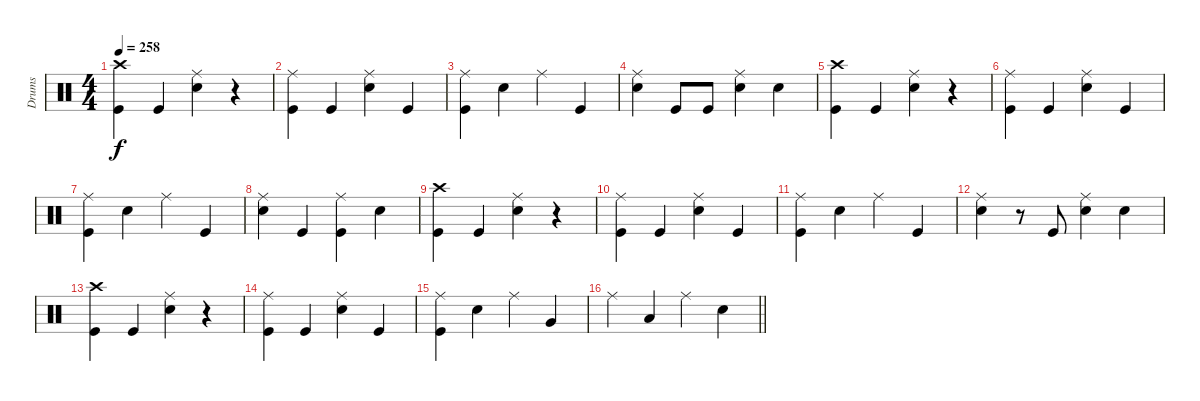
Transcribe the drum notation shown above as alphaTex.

\track ("Drums" "Drums") {instrument percussion}
\staff {score}
\articulation defaults
\ts (4 4)
\section ("" "")
\tempo 258
\clef neutral
\ks c
("Crash high (hit)" "Kick (hit)").4{dy f} "Kick (hit)".4 ("Ride (middle)" "Electric Snare (hit)").4 r.4 |
("Ride (middle)" "Kick (hit)").4 "Kick (hit)".4 ("Ride (middle)" "Electric Snare (hit)").4 "Kick (hit)".4 |
("Ride (middle)" "Kick (hit)").4 "Electric Snare (hit)".4 "Ride (middle)".4 "Kick (hit)".4 |
("Ride (middle)" "Electric Snare (hit)").4 "Kick (hit)".8 "Kick (hit)".8 ("Ride (middle)" "Electric Snare (hit)").4 "Electric Snare (hit)".4 |
("Crash high (hit)" "Kick (hit)").4 "Kick (hit)".4 ("Ride (middle)" "Electric Snare (hit)").4 r.4 |
("Ride (middle)" "Kick (hit)").4 "Kick (hit)".4 ("Ride (middle)" "Electric Snare (hit)").4 "Kick (hit)".4 |
("Ride (middle)" "Kick (hit)").4 "Electric Snare (hit)".4 "Ride (middle)".4 "Kick (hit)".4 |
("Ride (middle)" "Electric Snare (hit)").4 "Kick (hit)".4 ("Ride (middle)" "Kick (hit)").4 "Electric Snare (hit)".4 |
("Crash high (hit)" "Kick (hit)").4 "Kick (hit)".4 ("Ride (middle)" "Electric Snare (hit)").4 r.4 |
("Ride (middle)" "Kick (hit)").4 "Kick (hit)".4 ("Ride (middle)" "Electric Snare (hit)").4 "Kick (hit)".4 |
("Ride (middle)" "Kick (hit)").4 "Electric Snare (hit)".4 "Ride (middle)".4 "Kick (hit)".4 |
("Ride (middle)" "Electric Snare (hit)").4 r.8 "Kick (hit)".8 ("Ride (middle)" "Electric Snare (hit)").4 "Electric Snare (hit)".4 |
("Crash high (hit)" "Kick (hit)").4 "Kick (hit)".4 ("Ride (middle)" "Electric Snare (hit)").4 r.4 |
("Ride (middle)" "Kick (hit)").4 "Kick (hit)".4 ("Ride (middle)" "Electric Snare (hit)").4 "Kick (hit)".4 |
("Ride (middle)" "Kick (hit)").4 "Electric Snare (hit)".4 "Ride (middle)".4 "Very Low Tom (hit)".4 |
\barLineRight lightlight "Ride (middle)".4 "Low Floor Tom (hit)".4 "Ride (middle)".4 "Electric Snare (hit)".4
